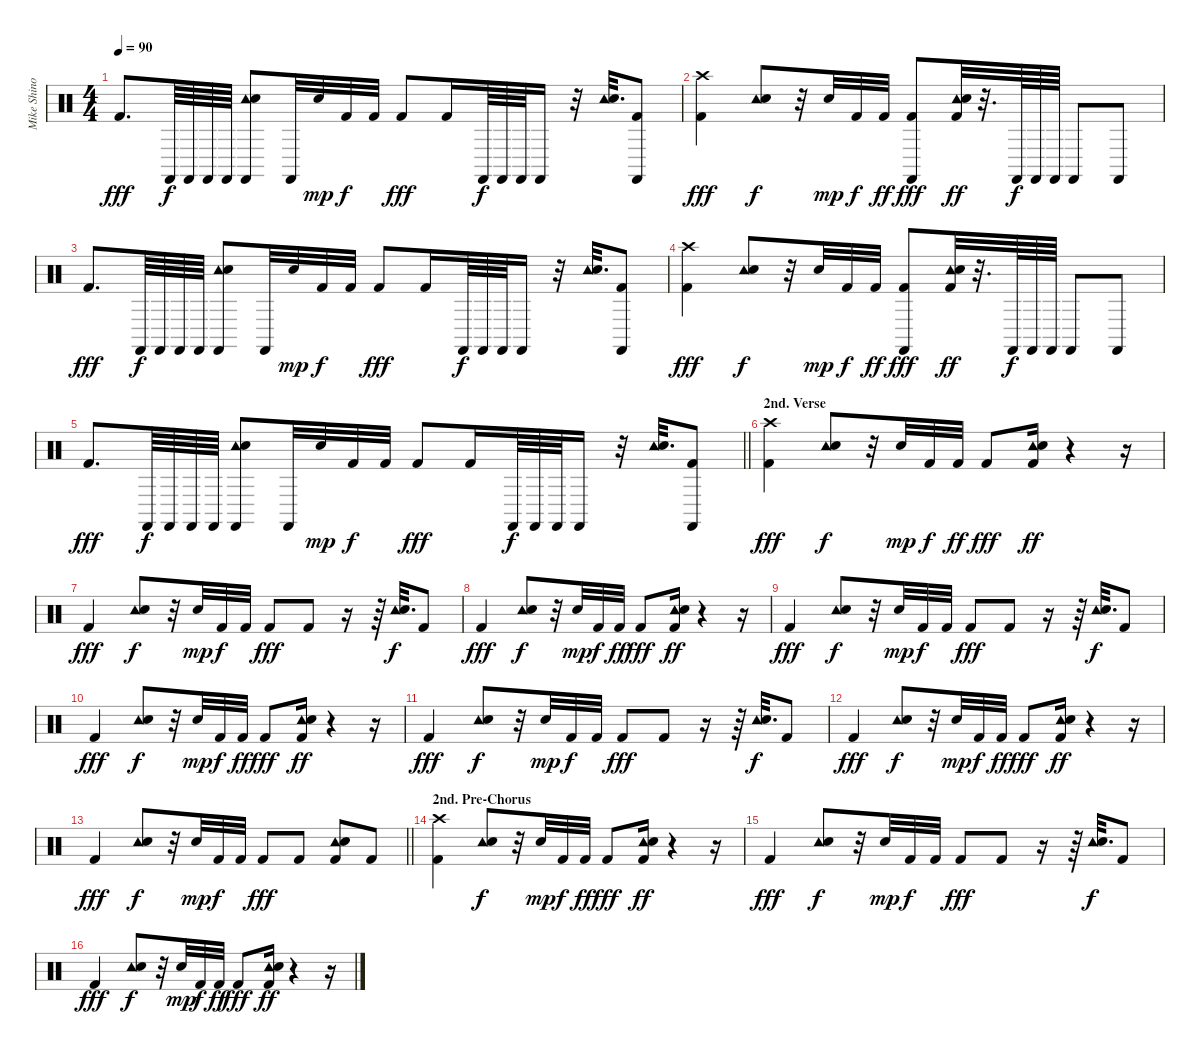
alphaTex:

\track ("Mike Shinoda - Percussion" "Mike Shino") {instrument percussion}
\staff {score}
\articulation defaults
\ts (4 4)
\tempo 90
\clef neutral
\ks c "Kick (hit) 2".8{d dy fff} "Castanets (hit)".64{dy f} "Castanets (hit)".64 "Castanets (hit)".64 "Castanets (hit)".64
("Castanets (hit)" "Tambourine (hit)" "Electric Snare (hit)").8 "Castanets (hit)".32 "Snare (hit) 2".32{dy mp} "Kick (hit) 2".32{dy f} "Kick (hit) 2".32 "Kick (hit) 2".8{dy fff} "Kick (hit) 2".16 "Castanets (hit)".64{dy f} "Castanets (hit)".64 "Castanets (hit)".64 "Castanets (hit)".16 r.32 ("Tambourine (hit)" "Electric Snare (hit)").32{d} ("Castanets (hit)" "Kick (hit) 2").8 |
("Crash high (hit)" "Kick (hit) 2").4{dy fff} ("Tambourine (hit)" "Electric Snare (hit)").8{dy f} r.32 "Snare (hit) 2".32{dy mp} "Kick (hit) 2".32{dy f} "Kick (hit) 2".32{dy ff} ("Castanets (hit)" "Kick (hit) 2").8{dy fff} ("Tambourine (hit)" "Electric Snare (hit)" "Kick (hit) 2").32{dy ff} r.32{d} "Castanets (hit)".64{dy f} "Castanets (hit)".64 "Castanets (hit)".64 "Castanets (hit)".8 "Castanets (hit)".8 |
"Kick (hit) 2".8{d dy fff} "Castanets (hit)".64{dy f} "Castanets (hit)".64 "Castanets (hit)".64 "Castanets (hit)".64 ("Castanets (hit)" "Tambourine (hit)" "Electric Snare (hit)").8 "Castanets (hit)".32 "Snare (hit) 2".32{dy mp} "Kick (hit) 2".32{dy f} "Kick (hit) 2".32 "Kick (hit) 2".8{dy fff} "Kick (hit) 2".16 "Castanets (hit)".64{dy f} "Castanets (hit)".64 "Castanets (hit)".64 "Castanets (hit)".16 r.32 ("Tambourine (hit)" "Electric Snare (hit)").32{d} ("Castanets (hit)" "Kick (hit) 2").8 |
("Crash high (hit)" "Kick (hit) 2").4{dy fff} ("Tambourine (hit)" "Electric Snare (hit)").8{dy f} r.32 "Snare (hit) 2".32{dy mp} "Kick (hit) 2".32{dy f} "Kick (hit) 2".32{dy ff} ("Castanets (hit)" "Kick (hit) 2").8{dy fff} ("Tambourine (hit)" "Electric Snare (hit)" "Kick (hit) 2").32{dy ff} r.32{d} "Castanets (hit)".64{dy f} "Castanets (hit)".64 "Castanets (hit)".64 "Castanets (hit)".8 "Castanets (hit)".8 |
\barLineRight lightlight "Kick (hit) 2".8{d dy fff} "Castanets (hit)".64{dy f} "Castanets (hit)".64 "Castanets (hit)".64 "Castanets (hit)".64
("Castanets (hit)" "Tambourine (hit)" "Electric Snare (hit)").8 "Castanets (hit)".32 "Snare (hit) 2".32{dy mp} "Kick (hit) 2".32{dy f} "Kick (hit) 2".32 "Kick (hit) 2".8{dy fff} "Kick (hit) 2".16 "Castanets (hit)".64{dy f} "Castanets (hit)".64 "Castanets (hit)".64 "Castanets (hit)".16 r.32 ("Tambourine (hit)" "Electric Snare (hit)").32{d} ("Castanets (hit)" "Kick (hit) 2").8 |
\section ("" "2nd. Verse")
("Crash high (hit)" "Kick (hit) 2").4{dy fff} ("Tambourine (hit)" "Electric Snare (hit)").8{dy f} r.32 "Snare (hit) 2".32{dy mp} "Kick (hit) 2".32{dy f} "Kick (hit) 2".32{dy ff} "Kick (hit) 2".8{dy fff} ("Tambourine (hit)" "Electric Snare (hit)" "Kick (hit) 2").16{dy ff} r.4 r.16 |
"Kick (hit) 2".4{dy fff} ("Tambourine (hit)" "Electric Snare (hit)").8{dy f} r.32 "Snare (hit) 2".32{dy mp} "Kick (hit) 2".32{dy f} "Kick (hit) 2".32 "Kick (hit) 2".8{dy fff} "Kick (hit) 2".8 r.16 r.64 ("Tambourine (hit)" "Electric Snare (hit)").32{d dy f} "Kick (hit) 2".8 |
"Kick (hit) 2".4{dy fff} ("Tambourine (hit)" "Electric Snare (hit)").8{dy f} r.32 "Snare (hit) 2".32{dy mp} "Kick (hit) 2".32{dy f} "Kick (hit) 2".32{dy ff} "Kick (hit) 2".8{dy fff} ("Tambourine (hit)" "Electric Snare (hit)" "Kick (hit) 2").16{dy ff} r.4 r.16 |
"Kick (hit) 2".4{dy fff} ("Tambourine (hit)" "Electric Snare (hit)").8{dy f} r.32 "Snare (hit) 2".32{dy mp} "Kick (hit) 2".32{dy f} "Kick (hit) 2".32 "Kick (hit) 2".8{dy fff} "Kick (hit) 2".8 r.16 r.64 ("Tambourine (hit)" "Electric Snare (hit)").32{d dy f} "Kick (hit) 2".8 |
"Kick (hit) 2".4{dy fff} ("Tambourine (hit)" "Electric Snare (hit)").8{dy f} r.32 "Snare (hit) 2".32{dy mp} "Kick (hit) 2".32{dy f} "Kick (hit) 2".32{dy ff} "Kick (hit) 2".8{dy fff} ("Tambourine (hit)" "Electric Snare (hit)" "Kick (hit) 2").16{dy ff} r.4 r.16 |
"Kick (hit) 2".4{dy fff} ("Tambourine (hit)" "Electric Snare (hit)").8{dy f} r.32 "Snare (hit) 2".32{dy mp} "Kick (hit) 2".32{dy f} "Kick (hit) 2".32 "Kick (hit) 2".8{dy fff} "Kick (hit) 2".8 r.16 r.64 ("Tambourine (hit)" "Electric Snare (hit)").32{d dy f} "Kick (hit) 2".8 |
"Kick (hit) 2".4{dy fff} ("Tambourine (hit)" "Electric Snare (hit)").8{dy f} r.32 "Snare (hit) 2".32{dy mp} "Kick (hit) 2".32{dy f} "Kick (hit) 2".32{dy ff} "Kick (hit) 2".8{dy fff} ("Tambourine (hit)" "Electric Snare (hit)" "Kick (hit) 2").16{dy ff} r.4 r.16 |
\barLineRight lightlight "Kick (hit) 2".4{dy fff}
("Tambourine (hit)" "Electric Snare (hit)").8{dy f} r.32 "Snare (hit) 2".32{dy mp} "Kick (hit) 2".32{dy f} "Kick (hit) 2".32 "Kick (hit) 2".8{dy fff} "Kick (hit) 2".8 ("Tambourine (hit)" "Electric Snare (hit)" "Kick (hit) 2").8 "Kick (hit) 2".8 |
\section ("" "2nd. Pre-Chorus")
("Crash high (hit)" "Kick (hit) 2").4 ("Tambourine (hit)" "Electric Snare (hit)").8{dy f} r.32 "Snare (hit) 2".32{dy mp} "Kick (hit) 2".32{dy f} "Kick (hit) 2".32{dy ff} "Kick (hit) 2".8{dy fff} ("Tambourine (hit)" "Electric Snare (hit)" "Kick (hit) 2").16{dy ff} r.4 r.16 |
"Kick (hit) 2".4{dy fff} ("Tambourine (hit)" "Electric Snare (hit)").8{dy f} r.32 "Snare (hit) 2".32{dy mp} "Kick (hit) 2".32{dy f} "Kick (hit) 2".32 "Kick (hit) 2".8{dy fff} "Kick (hit) 2".8 r.16 r.64 ("Tambourine (hit)" "Electric Snare (hit)").32{d dy f} "Kick (hit) 2".8 |
"Kick (hit) 2".4{dy fff} ("Tambourine (hit)" "Electric Snare (hit)").8{dy f} r.32 "Snare (hit) 2".32{dy mp} "Kick (hit) 2".32{dy f} "Kick (hit) 2".32{dy ff} "Kick (hit) 2".8{dy fff} ("Tambourine (hit)" "Electric Snare (hit)" "Kick (hit) 2").16{dy ff} r.4 r.16
